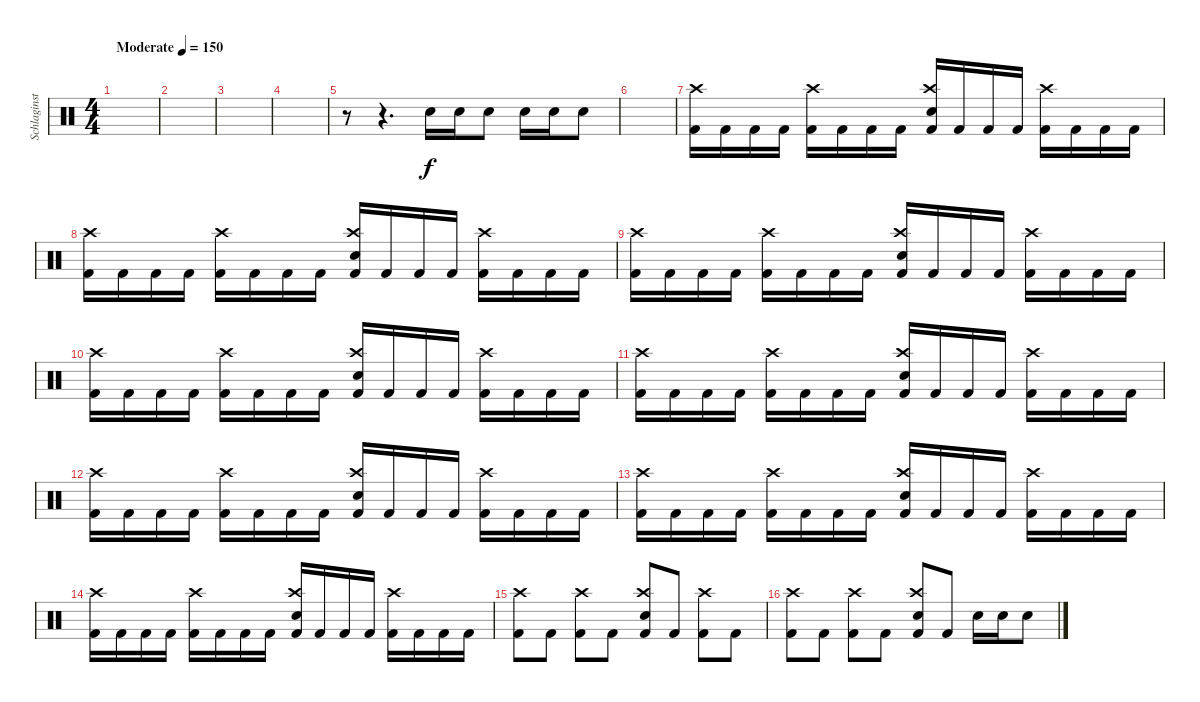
\track ("Schlaginstrumente - Auswahl" "Schlaginst") {instrument percussion}
\staff {score}
\articulation defaults
\ts (4 4)
\tempo (150 "Moderate")
\clef neutral
\ks c
|
|
|
|
r.8 r.4{d} "Snare (hit) 2".16 "Snare (hit) 2".16 "Snare (hit) 2".8 "Snare (hit) 2".16 "Snare (hit) 2".16 "Snare (hit) 2".8 |
|
("Crash high (hit)" "Kick (hit) 2").16 "Kick (hit) 2".16 "Kick (hit) 2".16 "Kick (hit) 2".16 ("Crash high (hit)" "Kick (hit) 2").16 "Kick (hit) 2".16 "Kick (hit) 2".16 "Kick (hit) 2".16 ("Crash high (hit)" "Snare (hit) 2" "Kick (hit) 2").16 "Kick (hit) 2".16 "Kick (hit) 2".16 "Kick (hit) 2".16 ("Crash high (hit)" "Kick (hit) 2").16 "Kick (hit) 2".16 "Kick (hit) 2".16 "Kick (hit) 2".16 |
("Crash high (hit)" "Kick (hit) 2").16 "Kick (hit) 2".16 "Kick (hit) 2".16 "Kick (hit) 2".16 ("Crash high (hit)" "Kick (hit) 2").16 "Kick (hit) 2".16 "Kick (hit) 2".16 "Kick (hit) 2".16 ("Crash high (hit)" "Snare (hit) 2" "Kick (hit) 2").16 "Kick (hit) 2".16 "Kick (hit) 2".16 "Kick (hit) 2".16 ("Crash high (hit)" "Kick (hit) 2").16 "Kick (hit) 2".16 "Kick (hit) 2".16 "Kick (hit) 2".16 |
("Crash high (hit)" "Kick (hit) 2").16 "Kick (hit) 2".16 "Kick (hit) 2".16 "Kick (hit) 2".16 ("Crash high (hit)" "Kick (hit) 2").16 "Kick (hit) 2".16 "Kick (hit) 2".16 "Kick (hit) 2".16 ("Crash high (hit)" "Snare (hit) 2" "Kick (hit) 2").16 "Kick (hit) 2".16 "Kick (hit) 2".16 "Kick (hit) 2".16 ("Crash high (hit)" "Kick (hit) 2").16 "Kick (hit) 2".16 "Kick (hit) 2".16 "Kick (hit) 2".16 |
("Crash high (hit)" "Kick (hit) 2").16 "Kick (hit) 2".16 "Kick (hit) 2".16 "Kick (hit) 2".16 ("Crash high (hit)" "Kick (hit) 2").16 "Kick (hit) 2".16 "Kick (hit) 2".16 "Kick (hit) 2".16 ("Crash high (hit)" "Snare (hit) 2" "Kick (hit) 2").16 "Kick (hit) 2".16 "Kick (hit) 2".16 "Kick (hit) 2".16 ("Crash high (hit)" "Kick (hit) 2").16 "Kick (hit) 2".16 "Kick (hit) 2".16 "Kick (hit) 2".16 |
("Crash high (hit)" "Kick (hit) 2").16 "Kick (hit) 2".16 "Kick (hit) 2".16 "Kick (hit) 2".16 ("Crash high (hit)" "Kick (hit) 2").16 "Kick (hit) 2".16 "Kick (hit) 2".16 "Kick (hit) 2".16 ("Crash high (hit)" "Snare (hit) 2" "Kick (hit) 2").16 "Kick (hit) 2".16 "Kick (hit) 2".16 "Kick (hit) 2".16 ("Crash high (hit)" "Kick (hit) 2").16 "Kick (hit) 2".16 "Kick (hit) 2".16 "Kick (hit) 2".16 |
("Crash high (hit)" "Kick (hit) 2").16 "Kick (hit) 2".16 "Kick (hit) 2".16 "Kick (hit) 2".16 ("Crash high (hit)" "Kick (hit) 2").16 "Kick (hit) 2".16 "Kick (hit) 2".16 "Kick (hit) 2".16 ("Crash high (hit)" "Snare (hit) 2" "Kick (hit) 2").16 "Kick (hit) 2".16 "Kick (hit) 2".16 "Kick (hit) 2".16 ("Crash high (hit)" "Kick (hit) 2").16 "Kick (hit) 2".16 "Kick (hit) 2".16 "Kick (hit) 2".16 |
("Crash high (hit)" "Kick (hit) 2").16 "Kick (hit) 2".16 "Kick (hit) 2".16 "Kick (hit) 2".16 ("Crash high (hit)" "Kick (hit) 2").16 "Kick (hit) 2".16 "Kick (hit) 2".16 "Kick (hit) 2".16 ("Crash high (hit)" "Snare (hit) 2" "Kick (hit) 2").16 "Kick (hit) 2".16 "Kick (hit) 2".16 "Kick (hit) 2".16 ("Crash high (hit)" "Kick (hit) 2").16 "Kick (hit) 2".16 "Kick (hit) 2".16 "Kick (hit) 2".16 |
("Crash high (hit)" "Kick (hit) 2").16 "Kick (hit) 2".16 "Kick (hit) 2".16 "Kick (hit) 2".16 ("Crash high (hit)" "Kick (hit) 2").16 "Kick (hit) 2".16 "Kick (hit) 2".16 "Kick (hit) 2".16 ("Crash high (hit)" "Snare (hit) 2" "Kick (hit) 2").16 "Kick (hit) 2".16 "Kick (hit) 2".16 "Kick (hit) 2".16 ("Crash high (hit)" "Kick (hit) 2").16 "Kick (hit) 2".16 "Kick (hit) 2".16 "Kick (hit) 2".16 |
("Crash high (hit)" "Kick (hit) 2").8 "Kick (hit) 2".8 ("Crash high (hit)" "Kick (hit) 2").8 "Kick (hit) 2".8 ("Crash high (hit)" "Snare (hit) 2" "Kick (hit) 2").8 "Kick (hit) 2".8 ("Crash high (hit)" "Kick (hit) 2").8 "Kick (hit) 2".8 |
("Crash high (hit)" "Kick (hit) 2").8 "Kick (hit) 2".8 ("Crash high (hit)" "Kick (hit) 2").8 "Kick (hit) 2".8 ("Crash high (hit)" "Snare (hit) 2" "Kick (hit) 2").8 "Kick (hit) 2".8 "Snare (hit) 2".16 "Snare (hit) 2".16 "Snare (hit) 2".8
